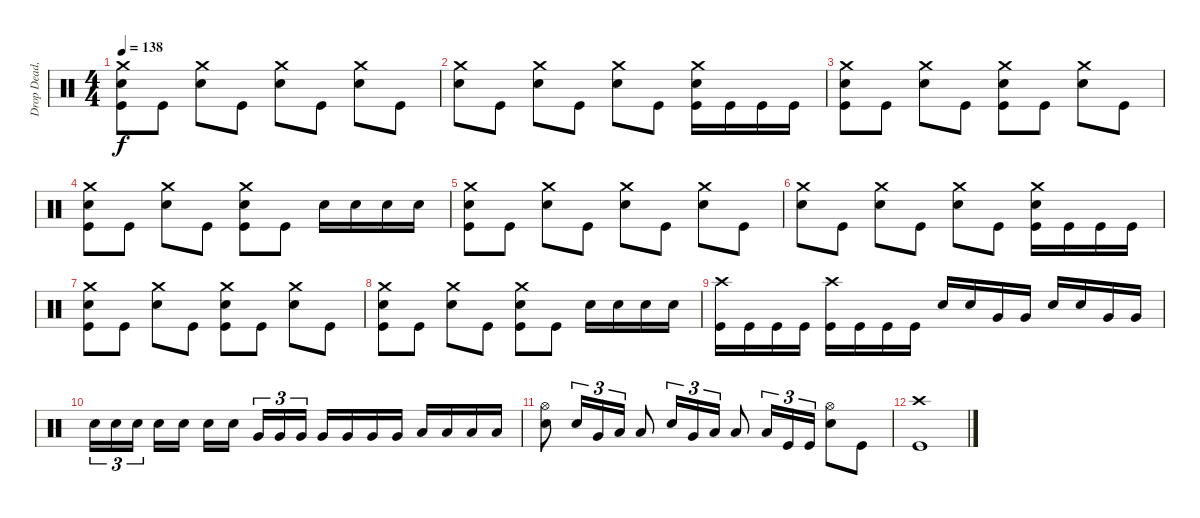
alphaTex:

\track ("Drop Dead, Johnny" "Drop Dead,") {instrument percussion}
\staff {score}
\articulation defaults
\ts (4 4)
\tempo 138
\clef neutral
\ks c
("Crash medium (hit)" "Electric Snare (hit)" "Kick (hit)").8{dy f} "Kick (hit)".8 ("Crash medium (hit)" "Electric Snare (hit)").8 "Kick (hit)".8 ("Crash medium (hit)" "Electric Snare (hit)").8 "Kick (hit)".8 ("Crash medium (hit)" "Electric Snare (hit)").8 "Kick (hit)".8 |
("Crash medium (hit)" "Electric Snare (hit)").8 "Kick (hit)".8 ("Crash medium (hit)" "Electric Snare (hit)").8 "Kick (hit)".8 ("Crash medium (hit)" "Electric Snare (hit)").8 "Kick (hit)".8 ("Crash medium (hit)" "Electric Snare (hit)" "Kick (hit)").16 "Kick (hit)".16 "Kick (hit)".16 "Kick (hit)".16 |
("Crash medium (hit)" "Electric Snare (hit)" "Kick (hit)").8 "Kick (hit)".8 ("Crash medium (hit)" "Electric Snare (hit)").8 "Kick (hit)".8 ("Crash medium (hit)" "Electric Snare (hit)" "Kick (hit)").8 "Kick (hit)".8 ("Crash medium (hit)" "Electric Snare (hit)").8 "Kick (hit)".8 |
("Crash medium (hit)" "Electric Snare (hit)" "Kick (hit)").8 "Kick (hit)".8 ("Crash medium (hit)" "Electric Snare (hit)").8 "Kick (hit)".8 ("Crash medium (hit)" "Electric Snare (hit)" "Kick (hit)").8 "Kick (hit)".8 "Electric Snare (hit)".16 "Electric Snare (hit)".16 "Electric Snare (hit)".16 "Electric Snare (hit)".16 |
("Crash medium (hit)" "Electric Snare (hit)" "Kick (hit)").8 "Kick (hit)".8 ("Crash medium (hit)" "Electric Snare (hit)").8 "Kick (hit)".8 ("Crash medium (hit)" "Electric Snare (hit)").8 "Kick (hit)".8 ("Crash medium (hit)" "Electric Snare (hit)").8 "Kick (hit)".8 |
("Crash medium (hit)" "Electric Snare (hit)").8 "Kick (hit)".8 ("Crash medium (hit)" "Electric Snare (hit)").8 "Kick (hit)".8 ("Crash medium (hit)" "Electric Snare (hit)").8 "Kick (hit)".8 ("Crash medium (hit)" "Electric Snare (hit)" "Kick (hit)").16 "Kick (hit)".16 "Kick (hit)".16 "Kick (hit)".16 |
("Crash medium (hit)" "Electric Snare (hit)" "Kick (hit)").8 "Kick (hit)".8 ("Crash medium (hit)" "Electric Snare (hit)").8 "Kick (hit)".8 ("Crash medium (hit)" "Electric Snare (hit)" "Kick (hit)").8 "Kick (hit)".8 ("Crash medium (hit)" "Electric Snare (hit)").8 "Kick (hit)".8 |
("Crash medium (hit)" "Electric Snare (hit)" "Kick (hit)").8 "Kick (hit)".8 ("Crash medium (hit)" "Electric Snare (hit)").8 "Kick (hit)".8 ("Crash medium (hit)" "Electric Snare (hit)" "Kick (hit)").8 "Kick (hit)".8 "Electric Snare (hit)".16 "Electric Snare (hit)".16 "Electric Snare (hit)".16 "Electric Snare (hit)".16 |
("Crash high (hit)" "Kick (hit)").16 "Kick (hit)".16 "Kick (hit)".16 "Kick (hit)".16 ("Crash high (hit)" "Kick (hit)").16 "Kick (hit)".16 "Kick (hit)".16 "Kick (hit)".16 "Electric Snare (hit)".16 "Electric Snare (hit)".16 "Very Low Tom (hit)".16 "Very Low Tom (hit)".16 "Electric Snare (hit)".16 "Electric Snare (hit)".16 "Very Low Tom (hit)".16 "Very Low Tom (hit)".16 |
"Electric Snare (hit)".16{tu (3 2)} "Electric Snare (hit)".16{tu (3 2)} "Electric Snare (hit)".16{tu (3 2) beam splitsecondary} "Electric Snare (hit)".16 "Electric Snare (hit)".16 "Electric Snare (hit)".16 "Electric Snare (hit)".16{beam splitsecondary} "Very Low Tom (hit)".16{tu (3 2)} "Very Low Tom (hit)".16{tu (3 2)} "Very Low Tom (hit)".16{tu (3 2)} "Very Low Tom (hit)".16 "Very Low Tom (hit)".16 "Very Low Tom (hit)".16 "Very Low Tom (hit)".16 "Low Floor Tom (hit)".16 "Low Floor Tom (hit)".16 "Low Floor Tom (hit)".16 "Low Floor Tom (hit)".16 |
("Hi-Hat (open)" "Electric Snare (hit)").8 "Electric Snare (hit)".16{tu (3 2)} "Very Low Tom (hit)".16{tu (3 2)} "Low Floor Tom (hit)".16{tu (3 2)} "Low Floor Tom (hit)".8 "Electric Snare (hit)".16{tu (3 2)} "Very Low Tom (hit)".16{tu (3 2)} "Low Floor Tom (hit)".16{tu (3 2)} "Low Floor Tom (hit)".8 "Low Floor Tom (hit)".16{tu (3 2)} "Kick (hit)".16{tu (3 2)} "Kick (hit)".16{tu (3 2)} ("Hi-Hat (open)" "Electric Snare (hit)").8 "Kick (hit)".8 |
("Crash high (hit)" "Kick (hit)").1
